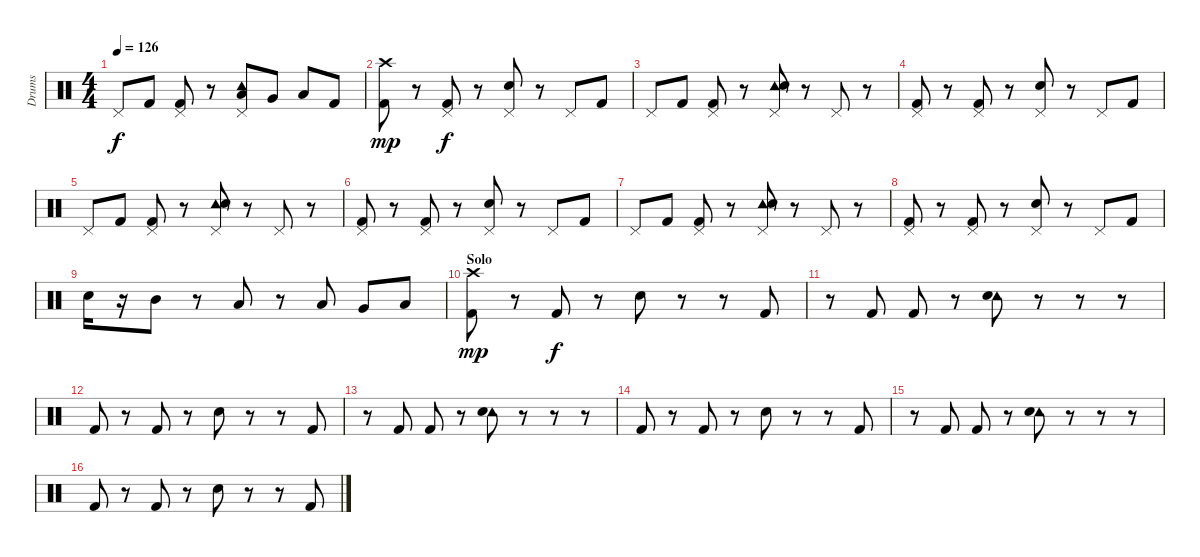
\track ("Drums" "Drums") {instrument percussion}
\staff {score}
\articulation defaults
\ts (4 4)
\tempo 126
\clef neutral
\ks c "Pedal Hi-Hat (hit)".8{dy f} "Kick (hit) 2".8
("Pedal Hi-Hat (hit)" "Kick (hit) 2").8 r.8 ("Pedal Hi-Hat (hit)" "Tambourine (hit)" "Low Tom (hit)").8 "Very Low Tom (hit)".8 "Low Floor Tom (hit)".8 "Kick (hit) 2".8 |
("Crash high (hit)" "Kick (hit) 2").8{dy mp} r.8 ("Pedal Hi-Hat (hit)" "Kick (hit) 2").8{dy f} r.8 ("Pedal Hi-Hat (hit)" "Electric Snare (hit)").8 r.8 "Pedal Hi-Hat (hit)".8 "Kick (hit) 2".8 |
"Pedal Hi-Hat (hit)".8 "Kick (hit) 2".8 ("Pedal Hi-Hat (hit)" "Kick (hit) 2").8 r.8 ("Pedal Hi-Hat (hit)" "Tambourine (hit)" "Electric Snare (hit)").8 r.8 "Pedal Hi-Hat (hit)".8 r.8 |
("Pedal Hi-Hat (hit)" "Kick (hit) 2").8 r.8 ("Pedal Hi-Hat (hit)" "Kick (hit) 2").8 r.8 ("Pedal Hi-Hat (hit)" "Electric Snare (hit)").8 r.8 "Pedal Hi-Hat (hit)".8 "Kick (hit) 2".8 |
"Pedal Hi-Hat (hit)".8 "Kick (hit) 2".8 ("Pedal Hi-Hat (hit)" "Kick (hit) 2").8 r.8 ("Pedal Hi-Hat (hit)" "Tambourine (hit)" "Electric Snare (hit)").8 r.8 "Pedal Hi-Hat (hit)".8 r.8 |
("Pedal Hi-Hat (hit)" "Kick (hit) 2").8 r.8 ("Pedal Hi-Hat (hit)" "Kick (hit) 2").8 r.8 ("Pedal Hi-Hat (hit)" "Electric Snare (hit)").8 r.8 "Pedal Hi-Hat (hit)".8 "Kick (hit) 2".8 |
"Pedal Hi-Hat (hit)".8 "Kick (hit) 2".8 ("Pedal Hi-Hat (hit)" "Kick (hit) 2").8 r.8 ("Pedal Hi-Hat (hit)" "Tambourine (hit)" "Electric Snare (hit)").8 r.8 "Pedal Hi-Hat (hit)".8 r.8 |
("Pedal Hi-Hat (hit)" "Kick (hit) 2").8 r.8 ("Pedal Hi-Hat (hit)" "Kick (hit) 2").8 r.8 ("Pedal Hi-Hat (hit)" "Electric Snare (hit)").8 r.8 "Pedal Hi-Hat (hit)".8 "Kick (hit) 2".8 |
"Electric Snare (hit)".16 r.16 "Mid Tom (hit)".8 r.8 "Low Tom (hit)".8 r.8 "Low Tom (hit)".8 "Very Low Tom (hit)".8 "Low Floor Tom (hit)".8 |
\section ("" "Solo")
("Crash high (hit)" "Kick (hit) 2").8{dy mp} r.8 "Kick (hit) 2".8{dy f} r.8 "Electric Snare (hit)".8 r.8 r.8 "Kick (hit) 2".8 |
r.8 "Kick (hit) 2".8 "Kick (hit) 2".8 r.8 ("Tambourine (hit)" "Electric Snare (hit)").8 r.8 r.8 r.8 |
"Kick (hit) 2".8 r.8 "Kick (hit) 2".8 r.8 "Electric Snare (hit)".8 r.8 r.8 "Kick (hit) 2".8 |
r.8 "Kick (hit) 2".8 "Kick (hit) 2".8 r.8 ("Tambourine (hit)" "Electric Snare (hit)").8 r.8 r.8 r.8 |
"Kick (hit) 2".8 r.8 "Kick (hit) 2".8 r.8 "Electric Snare (hit)".8 r.8 r.8 "Kick (hit) 2".8 |
r.8 "Kick (hit) 2".8 "Kick (hit) 2".8 r.8 ("Tambourine (hit)" "Electric Snare (hit)").8 r.8 r.8 r.8 |
"Kick (hit) 2".8 r.8 "Kick (hit) 2".8 r.8 "Electric Snare (hit)".8 r.8 r.8 "Kick (hit) 2".8
